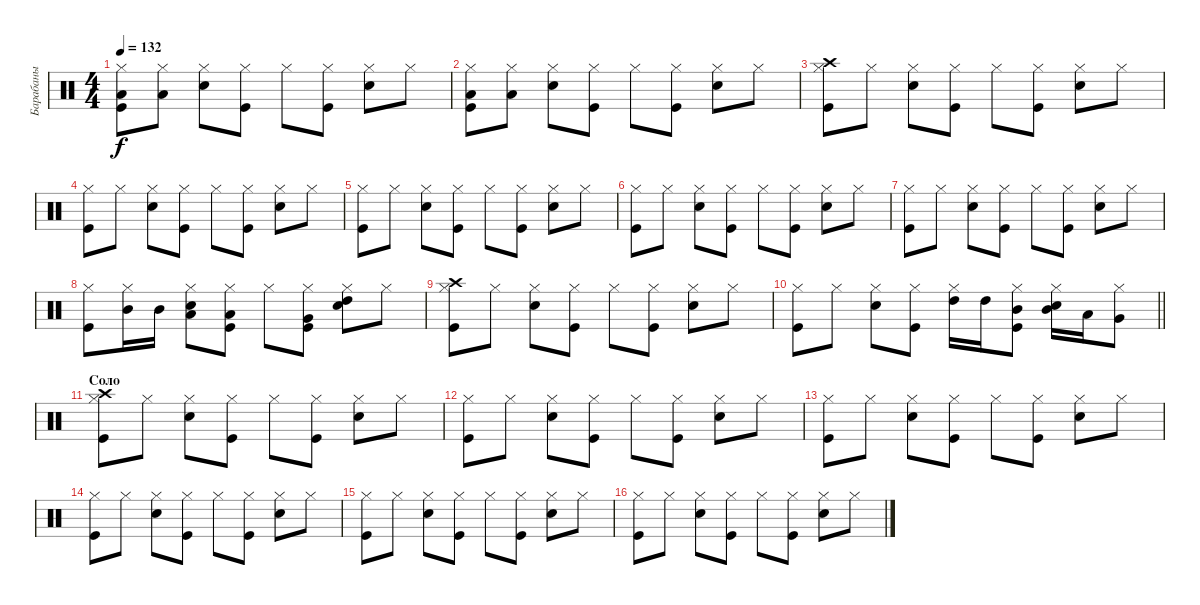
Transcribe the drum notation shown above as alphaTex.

\track ("Барабаны" "Барабаны") {instrument percussion}
\staff {score}
\articulation defaults
\ts (4 4)
\tempo 132
\clef neutral
\ks c
("Kick (hit)" "Hi-Hat (closed)" "Low Tom (hit)").8{dy f} ("Hi-Hat (closed)" "Low Tom (hit)").8 ("Snare (hit) 2" "Hi-Hat (closed)").8 ("Kick (hit)" "Hi-Hat (closed)").8 "Hi-Hat (closed)".8 ("Kick (hit)" "Hi-Hat (closed)").8 ("Snare (hit) 2" "Hi-Hat (closed)").8 "Hi-Hat (closed)".8 |
("Kick (hit)" "Hi-Hat (closed)" "Low Tom (hit)").8 ("Hi-Hat (closed)" "Low Tom (hit)").8 ("Snare (hit) 2" "Hi-Hat (closed)").8 ("Kick (hit)" "Hi-Hat (closed)").8 "Hi-Hat (closed)".8 ("Kick (hit)" "Hi-Hat (closed)").8 ("Snare (hit) 2" "Hi-Hat (closed)").8 "Hi-Hat (closed)".8 |
("Kick (hit)" "Hi-Hat (closed)" "Crash high (hit)").8 "Hi-Hat (closed)".8 ("Snare (hit) 2" "Hi-Hat (closed)").8 ("Kick (hit)" "Hi-Hat (closed)").8 "Hi-Hat (closed)".8 ("Kick (hit)" "Hi-Hat (closed)").8 ("Snare (hit) 2" "Hi-Hat (closed)").8 "Hi-Hat (closed)".8 |
("Kick (hit)" "Hi-Hat (closed)").8 "Hi-Hat (closed)".8 ("Snare (hit) 2" "Hi-Hat (closed)").8 ("Kick (hit)" "Hi-Hat (closed)").8 "Hi-Hat (closed)".8 ("Kick (hit)" "Hi-Hat (closed)").8 ("Snare (hit) 2" "Hi-Hat (closed)").8 "Hi-Hat (closed)".8 |
("Kick (hit)" "Hi-Hat (closed)").8 "Hi-Hat (closed)".8 ("Snare (hit) 2" "Hi-Hat (closed)").8 ("Kick (hit)" "Hi-Hat (closed)").8 "Hi-Hat (closed)".8 ("Kick (hit)" "Hi-Hat (closed)").8 ("Snare (hit) 2" "Hi-Hat (closed)").8 "Hi-Hat (closed)".8 |
("Kick (hit)" "Hi-Hat (closed)").8 "Hi-Hat (closed)".8 ("Snare (hit) 2" "Hi-Hat (closed)").8 ("Kick (hit)" "Hi-Hat (closed)").8 "Hi-Hat (closed)".8 ("Kick (hit)" "Hi-Hat (closed)").8 ("Snare (hit) 2" "Hi-Hat (closed)").8 "Hi-Hat (closed)".8 |
("Kick (hit)" "Hi-Hat (closed)").8 "Hi-Hat (closed)".8 ("Snare (hit) 2" "Hi-Hat (closed)").8 ("Kick (hit)" "Hi-Hat (closed)").8 "Hi-Hat (closed)".8 ("Kick (hit)" "Hi-Hat (closed)").8 ("Snare (hit) 2" "Hi-Hat (closed)").8 "Hi-Hat (closed)".8 |
("Kick (hit)" "Hi-Hat (closed)").8 ("Hi-Hat (closed)" "Mid Tom (hit)").16 "Mid Tom (hit)".16 ("Snare (hit) 2" "Hi-Hat (closed)" "Low Tom (hit)").8 ("Kick (hit)" "Hi-Hat (closed)" "Low Tom (hit)").8 "Hi-Hat (closed)".8 ("Kick (hit)" "Hi-Hat (closed)" "Very Low Tom (hit)").8 ("Snare (hit) 2" "Hi-Hat (closed)" "High Tom (hit)").8 "Hi-Hat (closed)".8 |
("Kick (hit)" "Hi-Hat (closed)" "Crash high (hit)").8 "Hi-Hat (closed)".8 ("Snare (hit) 2" "Hi-Hat (closed)").8 ("Kick (hit)" "Hi-Hat (closed)").8 "Hi-Hat (closed)".8 ("Kick (hit)" "Hi-Hat (closed)").8 ("Snare (hit) 2" "Hi-Hat (closed)").8 "Hi-Hat (closed)".8 |
\barLineRight lightlight
("Kick (hit)" "Hi-Hat (closed)").8 "Hi-Hat (closed)".8 ("Snare (hit) 2" "Hi-Hat (closed)").8 ("Kick (hit)" "Hi-Hat (closed)").8 ("Hi-Hat (closed)" "High Tom (hit)").16 "High Tom (hit)".16 ("Kick (hit)" "Hi-Hat (closed)" "Mid Tom (hit)").8 ("Snare (hit) 2" "Hi-Hat (closed)" "Mid Tom (hit)").16 "Low Tom (hit)".16 ("Hi-Hat (closed)" "Very Low Tom (hit)").8 |
\section ("" "Соло")
("Kick (hit)" "Hi-Hat (closed)" "Crash high (hit)").8 "Hi-Hat (closed)".8 ("Snare (hit) 2" "Hi-Hat (closed)").8 ("Kick (hit)" "Hi-Hat (closed)").8 "Hi-Hat (closed)".8 ("Kick (hit)" "Hi-Hat (closed)").8 ("Snare (hit) 2" "Hi-Hat (closed)").8 "Hi-Hat (closed)".8 |
("Kick (hit)" "Hi-Hat (closed)").8 "Hi-Hat (closed)".8 ("Snare (hit) 2" "Hi-Hat (closed)").8 ("Kick (hit)" "Hi-Hat (closed)").8 "Hi-Hat (closed)".8 ("Kick (hit)" "Hi-Hat (closed)").8 ("Snare (hit) 2" "Hi-Hat (closed)").8 "Hi-Hat (closed)".8 |
("Kick (hit)" "Hi-Hat (closed)").8 "Hi-Hat (closed)".8 ("Snare (hit) 2" "Hi-Hat (closed)").8 ("Kick (hit)" "Hi-Hat (closed)").8 "Hi-Hat (closed)".8 ("Kick (hit)" "Hi-Hat (closed)").8 ("Snare (hit) 2" "Hi-Hat (closed)").8 "Hi-Hat (closed)".8 |
("Kick (hit)" "Hi-Hat (closed)").8 "Hi-Hat (closed)".8 ("Snare (hit) 2" "Hi-Hat (closed)").8 ("Kick (hit)" "Hi-Hat (closed)").8 "Hi-Hat (closed)".8 ("Kick (hit)" "Hi-Hat (closed)").8 ("Snare (hit) 2" "Hi-Hat (closed)").8 "Hi-Hat (closed)".8 |
("Kick (hit)" "Hi-Hat (closed)").8 "Hi-Hat (closed)".8 ("Snare (hit) 2" "Hi-Hat (closed)").8 ("Kick (hit)" "Hi-Hat (closed)").8 "Hi-Hat (closed)".8 ("Kick (hit)" "Hi-Hat (closed)").8 ("Snare (hit) 2" "Hi-Hat (closed)").8 "Hi-Hat (closed)".8 |
("Kick (hit)" "Hi-Hat (closed)").8 "Hi-Hat (closed)".8 ("Snare (hit) 2" "Hi-Hat (closed)").8 ("Kick (hit)" "Hi-Hat (closed)").8 "Hi-Hat (closed)".8 ("Kick (hit)" "Hi-Hat (closed)").8 ("Snare (hit) 2" "Hi-Hat (closed)").8 "Hi-Hat (closed)".8
